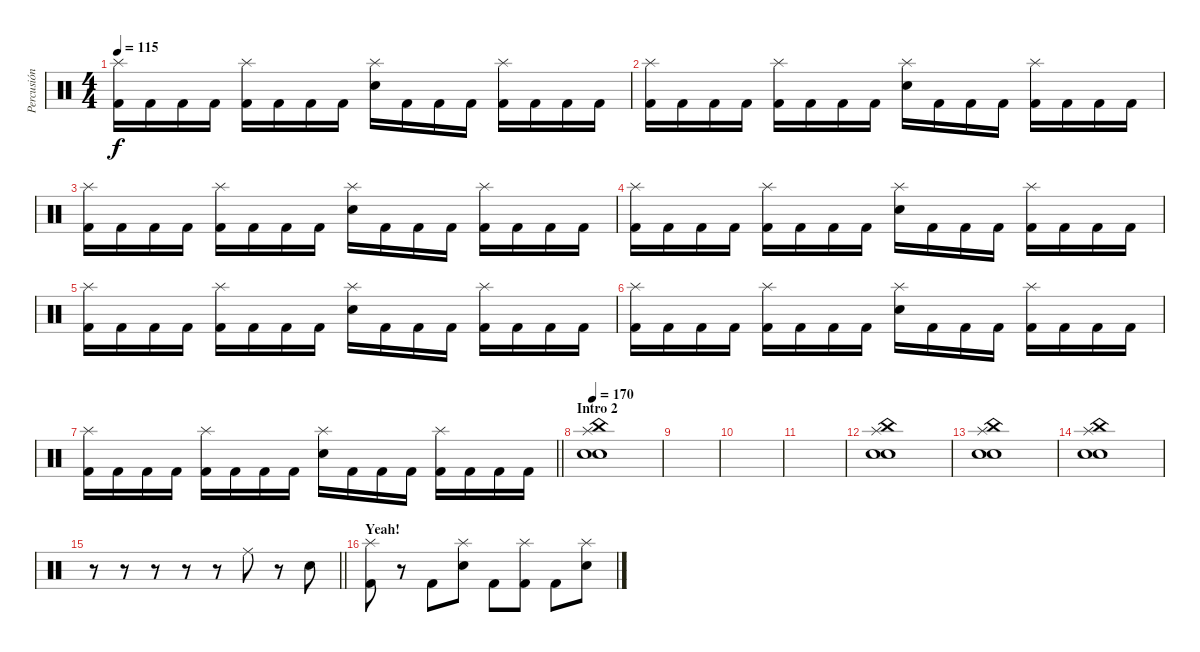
\track ("Percusión" "Percusión") {instrument percussion}
\staff {score}
\articulation defaults
\ts (4 4)
\tempo 115
\clef neutral
\ks c
("Splash (hit)" "Kick (hit) 2").16{dy f} "Kick (hit) 2".16 "Kick (hit) 2".16 "Kick (hit) 2".16 ("Splash (hit)" "Kick (hit) 2").16 "Kick (hit) 2".16 "Kick (hit) 2".16 "Kick (hit) 2".16 ("Splash (hit)" "Snare (hit) 2").16 "Kick (hit) 2".16 "Kick (hit) 2".16 "Kick (hit) 2".16 ("Splash (hit)" "Kick (hit) 2").16 "Kick (hit) 2".16 "Kick (hit) 2".16 "Kick (hit) 2".16 |
("Splash (hit)" "Kick (hit) 2").16 "Kick (hit) 2".16 "Kick (hit) 2".16 "Kick (hit) 2".16 ("Splash (hit)" "Kick (hit) 2").16 "Kick (hit) 2".16 "Kick (hit) 2".16 "Kick (hit) 2".16 ("Splash (hit)" "Snare (hit) 2").16 "Kick (hit) 2".16 "Kick (hit) 2".16 "Kick (hit) 2".16 ("Splash (hit)" "Kick (hit) 2").16 "Kick (hit) 2".16 "Kick (hit) 2".16 "Kick (hit) 2".16 |
("Splash (hit)" "Kick (hit) 2").16 "Kick (hit) 2".16 "Kick (hit) 2".16 "Kick (hit) 2".16 ("Splash (hit)" "Kick (hit) 2").16 "Kick (hit) 2".16 "Kick (hit) 2".16 "Kick (hit) 2".16 ("Splash (hit)" "Snare (hit) 2").16 "Kick (hit) 2".16 "Kick (hit) 2".16 "Kick (hit) 2".16 ("Splash (hit)" "Kick (hit) 2").16 "Kick (hit) 2".16 "Kick (hit) 2".16 "Kick (hit) 2".16 |
("Splash (hit)" "Kick (hit) 2").16 "Kick (hit) 2".16 "Kick (hit) 2".16 "Kick (hit) 2".16 ("Splash (hit)" "Kick (hit) 2").16 "Kick (hit) 2".16 "Kick (hit) 2".16 "Kick (hit) 2".16 ("Splash (hit)" "Snare (hit) 2").16 "Kick (hit) 2".16 "Kick (hit) 2".16 "Kick (hit) 2".16 ("Splash (hit)" "Kick (hit) 2").16 "Kick (hit) 2".16 "Kick (hit) 2".16 "Kick (hit) 2".16 |
("Splash (hit)" "Kick (hit) 2").16 "Kick (hit) 2".16 "Kick (hit) 2".16 "Kick (hit) 2".16 ("Splash (hit)" "Kick (hit) 2").16 "Kick (hit) 2".16 "Kick (hit) 2".16 "Kick (hit) 2".16 ("Splash (hit)" "Snare (hit) 2").16 "Kick (hit) 2".16 "Kick (hit) 2".16 "Kick (hit) 2".16 ("Splash (hit)" "Kick (hit) 2").16 "Kick (hit) 2".16 "Kick (hit) 2".16 "Kick (hit) 2".16 |
("Splash (hit)" "Kick (hit) 2").16 "Kick (hit) 2".16 "Kick (hit) 2".16 "Kick (hit) 2".16 ("Splash (hit)" "Kick (hit) 2").16 "Kick (hit) 2".16 "Kick (hit) 2".16 "Kick (hit) 2".16 ("Splash (hit)" "Snare (hit) 2").16 "Kick (hit) 2".16 "Kick (hit) 2".16 "Kick (hit) 2".16 ("Splash (hit)" "Kick (hit) 2").16 "Kick (hit) 2".16 "Kick (hit) 2".16 "Kick (hit) 2".16 |
\barLineRight lightlight
("Splash (hit)" "Kick (hit) 2").16 "Kick (hit) 2".16 "Kick (hit) 2".16 "Kick (hit) 2".16 ("Splash (hit)" "Kick (hit) 2").16 "Kick (hit) 2".16 "Kick (hit) 2".16 "Kick (hit) 2".16 ("Splash (hit)" "Snare (hit) 2").16 "Kick (hit) 2".16 "Kick (hit) 2".16 "Kick (hit) 2".16 ("Splash (hit)" "Kick (hit) 2").16 "Kick (hit) 2".16 "Kick (hit) 2".16 "Kick (hit) 2".16 |
\section ("" "Intro 2")
\tempo 170
("China (hit)" "Splash (hit)" "Electric Snare (hit)" "Snare (hit) 2").1 |
|
|
|
("China (hit)" "Snare (hit) 2" "Splash (hit)" "Electric Snare (hit)").1 |
("China (hit)" "Snare (hit) 2" "Splash (hit)" "Electric Snare (hit)").1 |
("China (hit)" "Snare (hit) 2" "Splash (hit)" "Electric Snare (hit)").1 |
\barLineRight lightlight
r.8 r.8 r.8 r.8 r.8 "Ride (middle)".8 r.8 "Snare (hit) 2".8 |
\section ("" "Yeah!")
("Splash (hit)" "Kick (hit) 2").8 r.8 "Kick (hit) 2".8 ("Splash (hit)" "Electric Snare (hit)").8 "Kick (hit) 2".8 ("Splash (hit)" "Kick (hit) 2").8 "Kick (hit) 2".8 ("Splash (hit)" "Electric Snare (hit)").8
